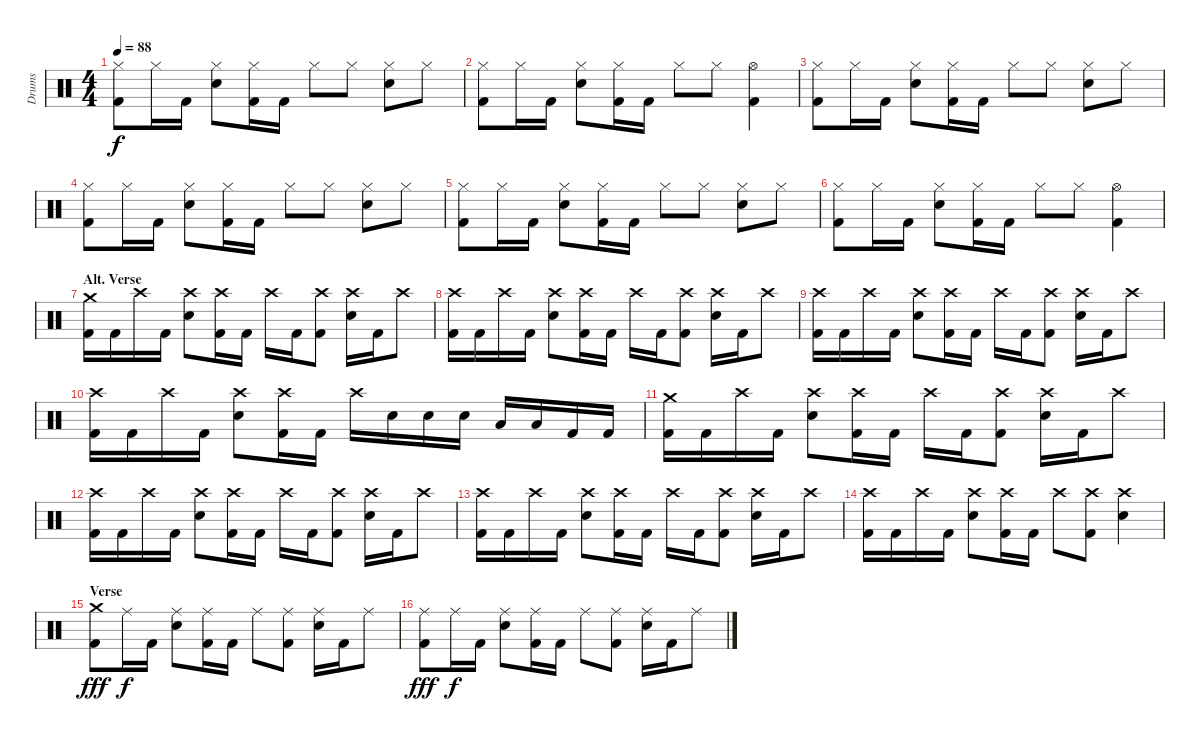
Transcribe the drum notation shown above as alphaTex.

\track ("Drums" "Drums") {instrument percussion}
\staff {score}
\articulation defaults
\ts (4 4)
\tempo 88
\clef neutral
\ks c
("Hi-Hat (closed)" "Kick (hit) 2").8{dy f} "Hi-Hat (closed)".16 "Kick (hit) 2".16 ("Hi-Hat (closed)" "Electric Snare (hit)").8 ("Hi-Hat (closed)" "Kick (hit) 2").16 "Kick (hit) 2".16 "Hi-Hat (closed)".8 "Hi-Hat (closed)".8 ("Hi-Hat (closed)" "Electric Snare (hit)").8 "Hi-Hat (closed)".8 |
("Hi-Hat (closed)" "Kick (hit) 2").8 "Hi-Hat (closed)".16 "Kick (hit) 2".16 ("Hi-Hat (closed)" "Electric Snare (hit)").8 ("Hi-Hat (closed)" "Kick (hit) 2").16 "Kick (hit) 2".16 "Hi-Hat (closed)".8 "Hi-Hat (closed)".8 ("Hi-Hat (open)" "Kick (hit) 2").4 |
("Hi-Hat (closed)" "Kick (hit) 2").8 "Hi-Hat (closed)".16 "Kick (hit) 2".16 ("Hi-Hat (closed)" "Electric Snare (hit)").8 ("Hi-Hat (closed)" "Kick (hit) 2").16 "Kick (hit) 2".16 "Hi-Hat (closed)".8 "Hi-Hat (closed)".8 ("Hi-Hat (closed)" "Electric Snare (hit)").8 "Hi-Hat (closed)".8 |
("Hi-Hat (closed)" "Kick (hit) 2").8 "Hi-Hat (closed)".16 "Kick (hit) 2".16 ("Hi-Hat (closed)" "Electric Snare (hit)").8 ("Hi-Hat (closed)" "Kick (hit) 2").16 "Kick (hit) 2".16 "Hi-Hat (closed)".8 "Hi-Hat (closed)".8 ("Hi-Hat (closed)" "Electric Snare (hit)").8 "Hi-Hat (closed)".8 |
("Hi-Hat (closed)" "Kick (hit) 2").8 "Hi-Hat (closed)".16 "Kick (hit) 2".16 ("Hi-Hat (closed)" "Electric Snare (hit)").8 ("Hi-Hat (closed)" "Kick (hit) 2").16 "Kick (hit) 2".16 "Hi-Hat (closed)".8 "Hi-Hat (closed)".8 ("Hi-Hat (closed)" "Electric Snare (hit)").8 "Hi-Hat (closed)".8 |
("Hi-Hat (closed)" "Kick (hit) 2").8 "Hi-Hat (closed)".16 "Kick (hit) 2".16 ("Hi-Hat (closed)" "Electric Snare (hit)").8 ("Hi-Hat (closed)" "Kick (hit) 2").16 "Kick (hit) 2".16 "Hi-Hat (closed)".8 "Hi-Hat (closed)".8 ("Hi-Hat (open)" "Kick (hit) 2").4 |
\section ("" "Alt. Verse")
("Crash medium (hit)" "Kick (hit) 2").16 "Kick (hit) 2".16 "Crash high (hit)".16 "Kick (hit) 2".16 ("Crash high (hit)" "Electric Snare (hit)").8 ("Crash high (hit)" "Kick (hit) 2").16 "Kick (hit) 2".16 "Crash high (hit)".16 "Kick (hit) 2".16 ("Crash high (hit)" "Kick (hit) 2").8 ("Crash high (hit)" "Electric Snare (hit)").16 "Kick (hit) 2".16 "Crash high (hit)".8 |
("Crash high (hit)" "Kick (hit) 2").16 "Kick (hit) 2".16 "Crash high (hit)".16 "Kick (hit) 2".16 ("Crash high (hit)" "Electric Snare (hit)").8 ("Crash high (hit)" "Kick (hit) 2").16 "Kick (hit) 2".16 "Crash high (hit)".16 "Kick (hit) 2".16 ("Crash high (hit)" "Kick (hit) 2").8 ("Crash high (hit)" "Electric Snare (hit)").16 "Kick (hit) 2".16 "Crash high (hit)".8 |
("Crash high (hit)" "Kick (hit) 2").16 "Kick (hit) 2".16 "Crash high (hit)".16 "Kick (hit) 2".16 ("Crash high (hit)" "Electric Snare (hit)").8 ("Crash high (hit)" "Kick (hit) 2").16 "Kick (hit) 2".16 "Crash high (hit)".16 "Kick (hit) 2".16 ("Crash high (hit)" "Kick (hit) 2").8 ("Crash high (hit)" "Electric Snare (hit)").16 "Kick (hit) 2".16 "Crash high (hit)".8 |
("Crash high (hit)" "Kick (hit) 2").16 "Kick (hit) 2".16 "Crash high (hit)".16 "Kick (hit) 2".16 ("Crash high (hit)" "Electric Snare (hit)").8 ("Crash high (hit)" "Kick (hit) 2").16 "Kick (hit) 2".16 "Crash high (hit)".16 "Electric Snare (hit)".16 "Electric Snare (hit)".16 "Electric Snare (hit)".16 "Low Floor Tom (hit)".16 "Low Floor Tom (hit)".16 "Kick (hit) 2".16 "Kick (hit) 2".16 |
("Crash medium (hit)" "Kick (hit) 2").16 "Kick (hit) 2".16 "Crash high (hit)".16 "Kick (hit) 2".16 ("Crash high (hit)" "Electric Snare (hit)").8 ("Crash high (hit)" "Kick (hit) 2").16 "Kick (hit) 2".16 "Crash high (hit)".16 "Kick (hit) 2".16 ("Crash high (hit)" "Kick (hit) 2").8 ("Crash high (hit)" "Electric Snare (hit)").16 "Kick (hit) 2".16 "Crash high (hit)".8 |
("Crash high (hit)" "Kick (hit) 2").16 "Kick (hit) 2".16 "Crash high (hit)".16 "Kick (hit) 2".16 ("Crash high (hit)" "Electric Snare (hit)").8 ("Crash high (hit)" "Kick (hit) 2").16 "Kick (hit) 2".16 "Crash high (hit)".16 "Kick (hit) 2".16 ("Crash high (hit)" "Kick (hit) 2").8 ("Crash high (hit)" "Electric Snare (hit)").16 "Kick (hit) 2".16 "Crash high (hit)".8 |
("Crash high (hit)" "Kick (hit) 2").16 "Kick (hit) 2".16 "Crash high (hit)".16 "Kick (hit) 2".16 ("Crash high (hit)" "Electric Snare (hit)").8 ("Crash high (hit)" "Kick (hit) 2").16 "Kick (hit) 2".16 "Crash high (hit)".16 "Kick (hit) 2".16 ("Crash high (hit)" "Kick (hit) 2").8 ("Crash high (hit)" "Electric Snare (hit)").16 "Kick (hit) 2".16 "Crash high (hit)".8 |
("Crash high (hit)" "Kick (hit) 2").16 "Kick (hit) 2".16 "Crash high (hit)".16 "Kick (hit) 2".16 ("Crash high (hit)" "Electric Snare (hit)").8 ("Crash high (hit)" "Kick (hit) 2").16 "Kick (hit) 2".16 "Crash high (hit)".8 ("Crash high (hit)" "Kick (hit) 2").8 ("Crash high (hit)" "Electric Snare (hit)").4 |
\section ("" "Verse")
("Crash medium (hit)" "Kick (hit) 2").8{dy fff} "Ride (middle)".16{dy f} "Kick (hit) 2".16 ("Ride (middle)" "Electric Snare (hit)").8 ("Ride (middle)" "Kick (hit) 2").16 "Kick (hit) 2".16 "Ride (middle)".8 ("Ride (middle)" "Kick (hit) 2").8 ("Ride (middle)" "Electric Snare (hit)").16 "Kick (hit) 2".16 "Ride (middle)".8 |
("Ride (middle)" "Kick (hit) 2").8{dy fff} "Ride (middle)".16{dy f} "Kick (hit) 2".16 ("Ride (middle)" "Electric Snare (hit)").8 ("Ride (middle)" "Kick (hit) 2").16 "Kick (hit) 2".16 "Ride (middle)".8 ("Ride (middle)" "Kick (hit) 2").8 ("Ride (middle)" "Electric Snare (hit)").16 "Kick (hit) 2".16 "Ride (middle)".8
